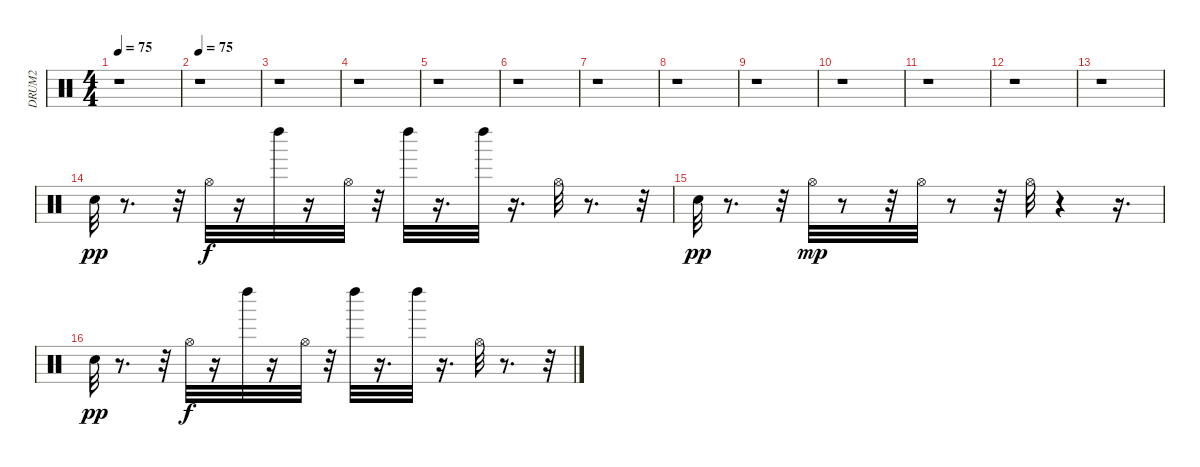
\track ("DRUM2" "DRUM2") {instrument percussion}
\staff {score}
\articulation defaults
\ts (4 4)
\tempo 75
\clef neutral
\ks c
r.1{dy pp} |
\tempo 75
r.1 |
r.1 |
r.1 |
r.1 |
r.1 |
r.1 |
r.1 |
r.1 |
r.1 |
r.1 |
r.1 |
r.1 |
"Snare (hit) 2".32{volume 6} r.8{d} r.32 "Hi-Hat (open)".32{dy f} r.16 "Left Maraca (hit)".32 r.16 "Hi-Hat (open)".32 r.32 "Left Maraca (hit)".32 r.16{d} "Left Maraca (hit)".32 r.16{d} "Hi-Hat (open)".32 r.8{d} r.32 |
"Snare (hit) 2".32{dy pp} r.8{d} r.32 "Hi-Hat (open)".32{dy mp} r.8 r.32 "Hi-Hat (open)".32 r.8 r.32 "Hi-Hat (open)".32 r.4 r.16{d} |
"Snare (hit) 2".32{dy pp} r.8{d} r.32 "Hi-Hat (open)".32{dy f} r.16 "Left Maraca (hit)".32 r.16 "Hi-Hat (open)".32 r.32 "Left Maraca (hit)".32 r.16{d} "Left Maraca (hit)".32 r.16{d} "Hi-Hat (open)".32 r.8{d} r.32
